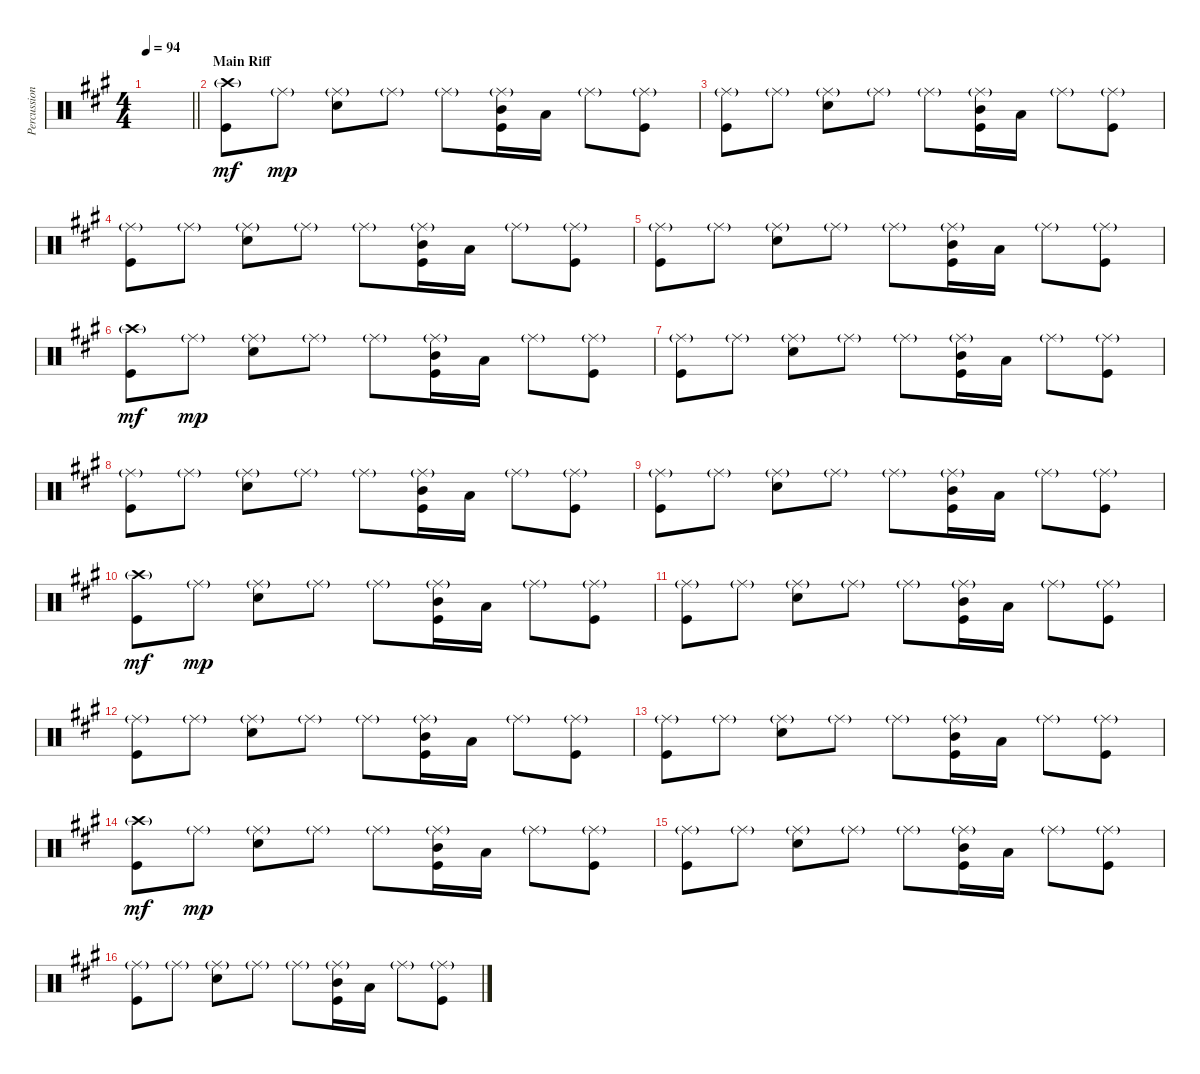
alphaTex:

\track ("Percussion" "Percussion") {instrument percussion}
\staff {score}
\articulation defaults
\ts (4 4)
\tempo 94
\clef neutral
\barLineRight lightlight
\ks a
|
\section ("" "Main Riff")
("Crash high (hit)"{g} "Kick (hit)").8{dy mf} "Ride (middle)"{g}.8{dy mp} ("Ride (middle)"{g} "Electric Snare (hit)").8 "Ride (middle)"{g}.8 "Ride (middle)"{g}.8 ("Ride (middle)"{g} "Mid Tom (hit)" "Kick (hit)").16 "Low Tom (hit)".16 "Ride (middle)"{g}.8 ("Ride (middle)"{g} "Kick (hit)").8 |
("Ride (middle)"{g} "Kick (hit)").8 "Ride (middle)"{g}.8 ("Ride (middle)"{g} "Electric Snare (hit)").8 "Ride (middle)"{g}.8 "Ride (middle)"{g}.8 ("Ride (middle)"{g} "Mid Tom (hit)" "Kick (hit)").16 "Low Tom (hit)".16 "Ride (middle)"{g}.8 ("Ride (middle)"{g} "Kick (hit)").8 |
("Ride (middle)"{g} "Kick (hit)").8 "Ride (middle)"{g}.8 ("Ride (middle)"{g} "Electric Snare (hit)").8 "Ride (middle)"{g}.8 "Ride (middle)"{g}.8 ("Ride (middle)"{g} "Mid Tom (hit)" "Kick (hit)").16 "Low Tom (hit)".16 "Ride (middle)"{g}.8 ("Ride (middle)"{g} "Kick (hit)").8 |
("Ride (middle)"{g} "Kick (hit)").8 "Ride (middle)"{g}.8 ("Ride (middle)"{g} "Electric Snare (hit)").8 "Ride (middle)"{g}.8 "Ride (middle)"{g}.8 ("Ride (middle)"{g} "Mid Tom (hit)" "Kick (hit)").16 "Low Tom (hit)".16 "Ride (middle)"{g}.8 ("Ride (middle)"{g} "Kick (hit)").8 |
("Crash high (hit)"{g} "Kick (hit)").8{dy mf} "Ride (middle)"{g}.8{dy mp} ("Ride (middle)"{g} "Electric Snare (hit)").8 "Ride (middle)"{g}.8 "Ride (middle)"{g}.8 ("Ride (middle)"{g} "Mid Tom (hit)" "Kick (hit)").16 "Low Tom (hit)".16 "Ride (middle)"{g}.8 ("Ride (middle)"{g} "Kick (hit)").8 |
("Ride (middle)"{g} "Kick (hit)").8 "Ride (middle)"{g}.8 ("Ride (middle)"{g} "Electric Snare (hit)").8 "Ride (middle)"{g}.8 "Ride (middle)"{g}.8 ("Ride (middle)"{g} "Mid Tom (hit)" "Kick (hit)").16 "Low Tom (hit)".16 "Ride (middle)"{g}.8 ("Ride (middle)"{g} "Kick (hit)").8 |
("Ride (middle)"{g} "Kick (hit)").8 "Ride (middle)"{g}.8 ("Ride (middle)"{g} "Electric Snare (hit)").8 "Ride (middle)"{g}.8 "Ride (middle)"{g}.8 ("Ride (middle)"{g} "Mid Tom (hit)" "Kick (hit)").16 "Low Tom (hit)".16 "Ride (middle)"{g}.8 ("Ride (middle)"{g} "Kick (hit)").8 |
("Ride (middle)"{g} "Kick (hit)").8 "Ride (middle)"{g}.8 ("Ride (middle)"{g} "Electric Snare (hit)").8 "Ride (middle)"{g}.8 "Ride (middle)"{g}.8 ("Ride (middle)"{g} "Mid Tom (hit)" "Kick (hit)").16 "Low Tom (hit)".16 "Ride (middle)"{g}.8 ("Ride (middle)"{g} "Kick (hit)").8 |
("Crash high (hit)"{g} "Kick (hit)").8{dy mf} "Ride (middle)"{g}.8{dy mp} ("Ride (middle)"{g} "Electric Snare (hit)").8 "Ride (middle)"{g}.8 "Ride (middle)"{g}.8 ("Ride (middle)"{g} "Mid Tom (hit)" "Kick (hit)").16 "Low Tom (hit)".16 "Ride (middle)"{g}.8 ("Ride (middle)"{g} "Kick (hit)").8 |
("Ride (middle)"{g} "Kick (hit)").8 "Ride (middle)"{g}.8 ("Ride (middle)"{g} "Electric Snare (hit)").8 "Ride (middle)"{g}.8 "Ride (middle)"{g}.8 ("Ride (middle)"{g} "Mid Tom (hit)" "Kick (hit)").16 "Low Tom (hit)".16 "Ride (middle)"{g}.8 ("Ride (middle)"{g} "Kick (hit)").8 |
("Ride (middle)"{g} "Kick (hit)").8 "Ride (middle)"{g}.8 ("Ride (middle)"{g} "Electric Snare (hit)").8 "Ride (middle)"{g}.8 "Ride (middle)"{g}.8 ("Ride (middle)"{g} "Mid Tom (hit)" "Kick (hit)").16 "Low Tom (hit)".16 "Ride (middle)"{g}.8 ("Ride (middle)"{g} "Kick (hit)").8 |
("Ride (middle)"{g} "Kick (hit)").8 "Ride (middle)"{g}.8 ("Ride (middle)"{g} "Electric Snare (hit)").8 "Ride (middle)"{g}.8 "Ride (middle)"{g}.8 ("Ride (middle)"{g} "Mid Tom (hit)" "Kick (hit)").16 "Low Tom (hit)".16 "Ride (middle)"{g}.8 ("Ride (middle)"{g} "Kick (hit)").8 |
("Crash high (hit)"{g} "Kick (hit)").8{dy mf} "Ride (middle)"{g}.8{dy mp} ("Ride (middle)"{g} "Electric Snare (hit)").8 "Ride (middle)"{g}.8 "Ride (middle)"{g}.8 ("Ride (middle)"{g} "Mid Tom (hit)" "Kick (hit)").16 "Low Tom (hit)".16 "Ride (middle)"{g}.8 ("Ride (middle)"{g} "Kick (hit)").8 |
("Ride (middle)"{g} "Kick (hit)").8 "Ride (middle)"{g}.8 ("Ride (middle)"{g} "Electric Snare (hit)").8 "Ride (middle)"{g}.8 "Ride (middle)"{g}.8 ("Ride (middle)"{g} "Mid Tom (hit)" "Kick (hit)").16 "Low Tom (hit)".16 "Ride (middle)"{g}.8 ("Ride (middle)"{g} "Kick (hit)").8 |
("Ride (middle)"{g} "Kick (hit)").8 "Ride (middle)"{g}.8 ("Ride (middle)"{g} "Electric Snare (hit)").8 "Ride (middle)"{g}.8 "Ride (middle)"{g}.8 ("Ride (middle)"{g} "Mid Tom (hit)" "Kick (hit)").16 "Low Tom (hit)".16 "Ride (middle)"{g}.8 ("Ride (middle)"{g} "Kick (hit)").8
